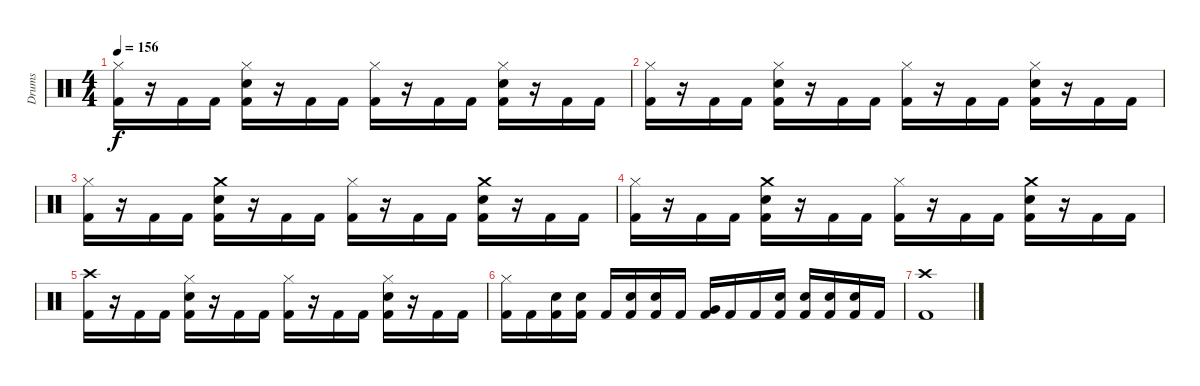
\track ("Drums" "Drums") {instrument percussion}
\staff {score}
\articulation defaults
\ts (4 4)
\tempo 156
\clef neutral
\ks c
("Hi-Hat (closed)" "Kick (hit) 2").16{dy f} r.16 "Kick (hit) 2".16 "Kick (hit) 2".16 ("Hi-Hat (closed)" "Snare (hit) 2" "Kick (hit) 2").16 r.16 "Kick (hit) 2".16 "Kick (hit) 2".16 ("Hi-Hat (closed)" "Kick (hit) 2").16 r.16 "Kick (hit) 2".16 "Kick (hit) 2".16 ("Hi-Hat (closed)" "Snare (hit) 2" "Kick (hit) 2").16 r.16 "Kick (hit) 2".16 "Kick (hit) 2".16 |
("Hi-Hat (closed)" "Kick (hit) 2").16 r.16 "Kick (hit) 2".16 "Kick (hit) 2".16 ("Hi-Hat (closed)" "Snare (hit) 2" "Kick (hit) 2").16 r.16 "Kick (hit) 2".16 "Kick (hit) 2".16 ("Hi-Hat (closed)" "Kick (hit) 2").16 r.16 "Kick (hit) 2".16 "Kick (hit) 2".16 ("Hi-Hat (closed)" "Snare (hit) 2" "Kick (hit) 2").16 r.16 "Kick (hit) 2".16 "Kick (hit) 2".16 |
("Hi-Hat (closed)" "Kick (hit) 2").16 r.16 "Kick (hit) 2".16 "Kick (hit) 2".16 ("Crash medium (hit)" "Snare (hit) 2" "Kick (hit) 2").16 r.16 "Kick (hit) 2".16 "Kick (hit) 2".16 ("Hi-Hat (closed)" "Kick (hit) 2").16 r.16 "Kick (hit) 2".16 "Kick (hit) 2".16 ("Crash medium (hit)" "Snare (hit) 2" "Kick (hit) 2").16 r.16 "Kick (hit) 2".16 "Kick (hit) 2".16 |
("Hi-Hat (closed)" "Kick (hit) 2").16 r.16 "Kick (hit) 2".16 "Kick (hit) 2".16 ("Crash medium (hit)" "Snare (hit) 2" "Kick (hit) 2").16 r.16 "Kick (hit) 2".16 "Kick (hit) 2".16 ("Hi-Hat (closed)" "Kick (hit) 2").16 r.16 "Kick (hit) 2".16 "Kick (hit) 2".16 ("Crash medium (hit)" "Snare (hit) 2" "Kick (hit) 2").16 r.16 "Kick (hit) 2".16 "Kick (hit) 2".16 |
("Crash high (hit)" "Kick (hit) 2").16 r.16 "Kick (hit) 2".16 "Kick (hit) 2".16 ("Hi-Hat (closed)" "Snare (hit) 2" "Kick (hit) 2").16 r.16 "Kick (hit) 2".16 "Kick (hit) 2".16 ("Hi-Hat (closed)" "Kick (hit) 2").16 r.16 "Kick (hit) 2".16 "Kick (hit) 2".16 ("Hi-Hat (closed)" "Snare (hit) 2" "Kick (hit) 2").16 r.16 "Kick (hit) 2".16 "Kick (hit) 2".16 |
("Hi-Hat (closed)" "Kick (hit) 2").16 "Kick (hit) 2".16 ("Snare (hit) 2" "Kick (hit) 2").16 ("Snare (hit) 2" "Kick (hit) 2").16 "Kick (hit) 2".16 ("Snare (hit) 2" "Kick (hit) 2").16 ("Snare (hit) 2" "Kick (hit) 2").16 "Kick (hit) 2".16 ("Very Low Tom (hit)" "Kick (hit) 2").16 "Kick (hit) 2".16 "Kick (hit) 2".16 ("Snare (hit) 2" "Kick (hit) 2").16 ("Snare (hit) 2" "Kick (hit) 2").16 ("Snare (hit) 2" "Kick (hit) 2").16 ("Snare (hit) 2" "Kick (hit) 2").16 "Kick (hit) 2".16 |
\section ("" "")
("Crash high (hit)" "Kick (hit) 2").1
